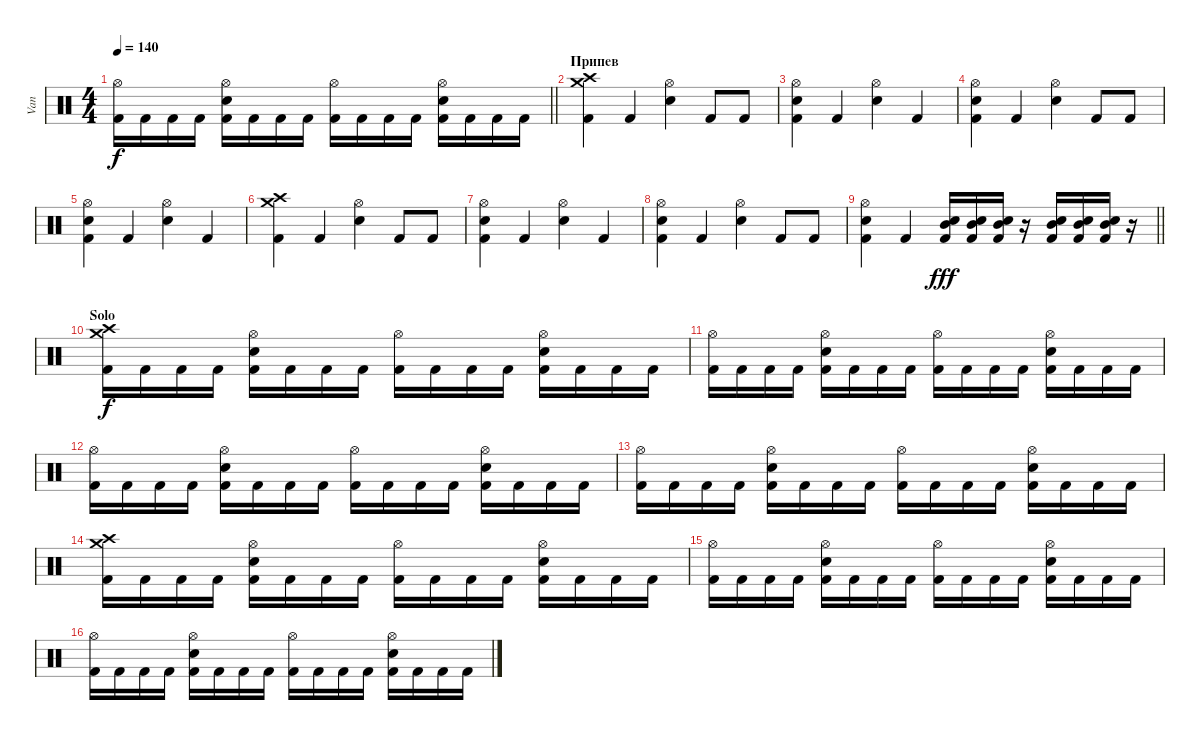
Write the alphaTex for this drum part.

\track ("Van" "Van") {instrument percussion}
\staff {score}
\articulation defaults
\ts (4 4)
\tempo 140
\clef neutral
\barLineRight lightlight
\ks c
("Hi-Hat (open)" "Kick (hit) 2").16{dy f} "Kick (hit) 2".16 "Kick (hit) 2".16 "Kick (hit) 2".16 ("Hi-Hat (open)" "Electric Snare (hit)" "Kick (hit) 2").16 "Kick (hit) 2".16 "Kick (hit) 2".16 "Kick (hit) 2".16 ("Hi-Hat (open)" "Kick (hit) 2").16 "Kick (hit) 2".16 "Kick (hit) 2".16 "Kick (hit) 2".16 ("Hi-Hat (open)" "Electric Snare (hit)" "Kick (hit) 2").16 "Kick (hit) 2".16 "Kick (hit) 2".16 "Kick (hit) 2".16 |
\section ("" "Припев")
("Crash medium (hit)" "Crash high (hit)" "Kick (hit) 2").4 "Kick (hit) 2".4 ("Hi-Hat (open)" "Electric Snare (hit)").4 "Kick (hit) 2".8 "Kick (hit) 2".8 |
("Hi-Hat (open)" "Electric Snare (hit)" "Kick (hit) 2").4 "Kick (hit) 2".4 ("Hi-Hat (open)" "Electric Snare (hit)").4 "Kick (hit) 2".4 |
("Hi-Hat (open)" "Electric Snare (hit)" "Kick (hit) 2").4 "Kick (hit) 2".4 ("Hi-Hat (open)" "Electric Snare (hit)").4 "Kick (hit) 2".8 "Kick (hit) 2".8 |
("Hi-Hat (open)" "Electric Snare (hit)" "Kick (hit) 2").4 "Kick (hit) 2".4 ("Hi-Hat (open)" "Electric Snare (hit)").4 "Kick (hit) 2".4 |
("Crash medium (hit)" "Crash high (hit)" "Kick (hit) 2").4 "Kick (hit) 2".4 ("Hi-Hat (open)" "Electric Snare (hit)").4 "Kick (hit) 2".8 "Kick (hit) 2".8 |
("Hi-Hat (open)" "Electric Snare (hit)" "Kick (hit) 2").4 "Kick (hit) 2".4 ("Hi-Hat (open)" "Electric Snare (hit)").4 "Kick (hit) 2".4 |
("Hi-Hat (open)" "Electric Snare (hit)" "Kick (hit) 2").4 "Kick (hit) 2".4 ("Hi-Hat (open)" "Electric Snare (hit)").4 "Kick (hit) 2".8 "Kick (hit) 2".8 |
\barLineRight lightlight
("Hi-Hat (open)" "Electric Snare (hit)" "Kick (hit) 2").4 "Kick (hit) 2".4 ("Mid Tom (hit)" "Electric Snare (hit)" "Kick (hit) 2").16{dy fff} ("Mid Tom (hit)" "Electric Snare (hit)" "Kick (hit) 2").16 ("Mid Tom (hit)" "Electric Snare (hit)" "Kick (hit) 2").16 r.16 ("Mid Tom (hit)" "Electric Snare (hit)" "Kick (hit) 2").16 ("Mid Tom (hit)" "Electric Snare (hit)" "Kick (hit) 2").16 ("Mid Tom (hit)" "Electric Snare (hit)" "Kick (hit) 2").16 r.16 |
\section ("" "Solo")
("Crash high (hit)" "Crash medium (hit)" "Kick (hit) 2").16{dy f} "Kick (hit) 2".16 "Kick (hit) 2".16 "Kick (hit) 2".16 ("Hi-Hat (open)" "Electric Snare (hit)" "Kick (hit) 2").16 "Kick (hit) 2".16 "Kick (hit) 2".16 "Kick (hit) 2".16 ("Hi-Hat (open)" "Kick (hit) 2").16 "Kick (hit) 2".16 "Kick (hit) 2".16 "Kick (hit) 2".16 ("Hi-Hat (open)" "Electric Snare (hit)" "Kick (hit) 2").16 "Kick (hit) 2".16 "Kick (hit) 2".16 "Kick (hit) 2".16 |
("Hi-Hat (open)" "Kick (hit) 2").16 "Kick (hit) 2".16 "Kick (hit) 2".16 "Kick (hit) 2".16 ("Hi-Hat (open)" "Electric Snare (hit)" "Kick (hit) 2").16 "Kick (hit) 2".16 "Kick (hit) 2".16 "Kick (hit) 2".16 ("Hi-Hat (open)" "Kick (hit) 2").16 "Kick (hit) 2".16 "Kick (hit) 2".16 "Kick (hit) 2".16 ("Hi-Hat (open)" "Electric Snare (hit)" "Kick (hit) 2").16 "Kick (hit) 2".16 "Kick (hit) 2".16 "Kick (hit) 2".16 |
("Hi-Hat (open)" "Kick (hit) 2").16 "Kick (hit) 2".16 "Kick (hit) 2".16 "Kick (hit) 2".16 ("Hi-Hat (open)" "Electric Snare (hit)" "Kick (hit) 2").16 "Kick (hit) 2".16 "Kick (hit) 2".16 "Kick (hit) 2".16 ("Hi-Hat (open)" "Kick (hit) 2").16 "Kick (hit) 2".16 "Kick (hit) 2".16 "Kick (hit) 2".16 ("Hi-Hat (open)" "Electric Snare (hit)" "Kick (hit) 2").16 "Kick (hit) 2".16 "Kick (hit) 2".16 "Kick (hit) 2".16 |
("Hi-Hat (open)" "Kick (hit) 2").16 "Kick (hit) 2".16 "Kick (hit) 2".16 "Kick (hit) 2".16 ("Hi-Hat (open)" "Electric Snare (hit)" "Kick (hit) 2").16 "Kick (hit) 2".16 "Kick (hit) 2".16 "Kick (hit) 2".16 ("Hi-Hat (open)" "Kick (hit) 2").16 "Kick (hit) 2".16 "Kick (hit) 2".16 "Kick (hit) 2".16 ("Hi-Hat (open)" "Electric Snare (hit)" "Kick (hit) 2").16 "Kick (hit) 2".16 "Kick (hit) 2".16 "Kick (hit) 2".16 |
("Crash high (hit)" "Crash medium (hit)" "Kick (hit) 2").16 "Kick (hit) 2".16 "Kick (hit) 2".16 "Kick (hit) 2".16 ("Hi-Hat (open)" "Electric Snare (hit)" "Kick (hit) 2").16 "Kick (hit) 2".16 "Kick (hit) 2".16 "Kick (hit) 2".16 ("Hi-Hat (open)" "Kick (hit) 2").16 "Kick (hit) 2".16 "Kick (hit) 2".16 "Kick (hit) 2".16 ("Hi-Hat (open)" "Electric Snare (hit)" "Kick (hit) 2").16 "Kick (hit) 2".16 "Kick (hit) 2".16 "Kick (hit) 2".16 |
("Hi-Hat (open)" "Kick (hit) 2").16 "Kick (hit) 2".16 "Kick (hit) 2".16 "Kick (hit) 2".16 ("Hi-Hat (open)" "Electric Snare (hit)" "Kick (hit) 2").16 "Kick (hit) 2".16 "Kick (hit) 2".16 "Kick (hit) 2".16 ("Hi-Hat (open)" "Kick (hit) 2").16 "Kick (hit) 2".16 "Kick (hit) 2".16 "Kick (hit) 2".16 ("Hi-Hat (open)" "Electric Snare (hit)" "Kick (hit) 2").16 "Kick (hit) 2".16 "Kick (hit) 2".16 "Kick (hit) 2".16 |
("Hi-Hat (open)" "Kick (hit) 2").16 "Kick (hit) 2".16 "Kick (hit) 2".16 "Kick (hit) 2".16 ("Hi-Hat (open)" "Electric Snare (hit)" "Kick (hit) 2").16 "Kick (hit) 2".16 "Kick (hit) 2".16 "Kick (hit) 2".16 ("Hi-Hat (open)" "Kick (hit) 2").16 "Kick (hit) 2".16 "Kick (hit) 2".16 "Kick (hit) 2".16 ("Hi-Hat (open)" "Electric Snare (hit)" "Kick (hit) 2").16 "Kick (hit) 2".16 "Kick (hit) 2".16 "Kick (hit) 2".16
